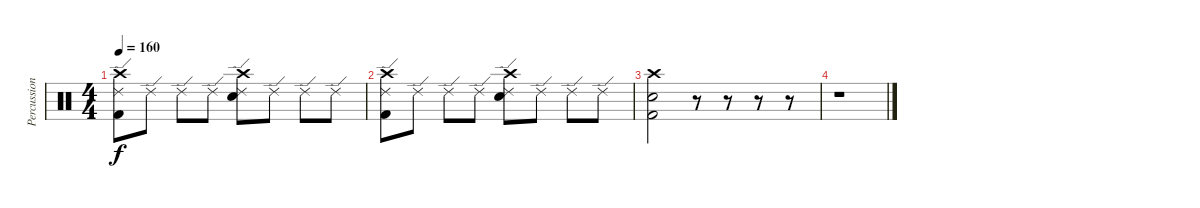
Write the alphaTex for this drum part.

\track ("Percussions" "Percussion") {instrument percussion}
\staff {score}
\articulation defaults
\ts (4 4)
\tempo 160
\clef neutral
\ks c
("Crash high (hit)" "Ride (edge) 2" "Kick (hit) 2").8{dy f} "Ride (edge) 2".8 "Ride (edge) 2".8 "Ride (edge) 2".8 ("Crash high (hit)" "Ride (edge) 2" "Snare (hit) 2").8 "Ride (edge) 2".8 "Ride (edge) 2".8 "Ride (edge) 2".8 |
("Crash high (hit)" "Ride (edge) 2" "Kick (hit) 2").8 "Ride (edge) 2".8 "Ride (edge) 2".8 "Ride (edge) 2".8 ("Crash high (hit)" "Ride (edge) 2" "Snare (hit) 2").8 "Ride (edge) 2".8 "Ride (edge) 2".8 "Ride (edge) 2".8 |
("Crash high (hit)" "Snare (hit) 2" "Kick (hit) 2").2 r.8 r.8 r.8 r.8 |
r.1
